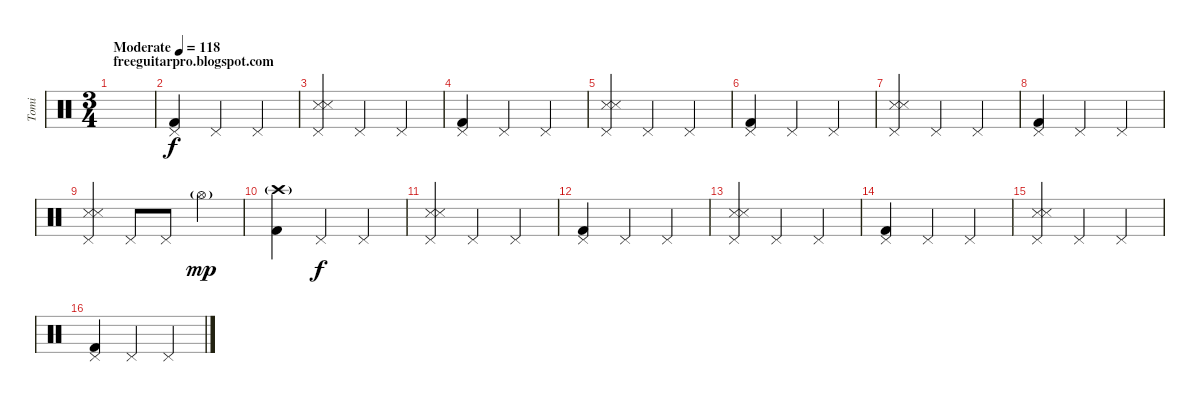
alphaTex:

\track ("Tomi" "Tomi") {instrument percussion}
\staff {score}
\articulation defaults
\ts (3 4)
\section ("" "freeguitarpro.blogspot.com")
\tempo (118 "Moderate")
\clef neutral
\ks c
|
("Pedal Hi-Hat (hit)" "Kick (hit) 2").4 "Pedal Hi-Hat (hit)".4 "Pedal Hi-Hat (hit)".4 |
("Snare (side stick) 3" "Pedal Hi-Hat (hit)" "Snare (side stick) 3").4 "Pedal Hi-Hat (hit)".4 "Pedal Hi-Hat (hit)".4 |
("Pedal Hi-Hat (hit)" "Kick (hit) 2").4 "Pedal Hi-Hat (hit)".4 "Pedal Hi-Hat (hit)".4 |
("Snare (side stick) 3" "Pedal Hi-Hat (hit)" "Snare (side stick) 3").4 "Pedal Hi-Hat (hit)".4 "Pedal Hi-Hat (hit)".4 |
("Pedal Hi-Hat (hit)" "Kick (hit) 2").4 "Pedal Hi-Hat (hit)".4 "Pedal Hi-Hat (hit)".4 |
("Snare (side stick) 3" "Pedal Hi-Hat (hit)" "Snare (side stick) 3").4 "Pedal Hi-Hat (hit)".4 "Pedal Hi-Hat (hit)".4 |
("Pedal Hi-Hat (hit)" "Kick (hit) 2").4 "Pedal Hi-Hat (hit)".4 "Pedal Hi-Hat (hit)".4 |
("Snare (side stick) 3" "Pedal Hi-Hat (hit)" "Snare (side stick) 3").4 "Pedal Hi-Hat (hit)".8 "Pedal Hi-Hat (hit)".8 "Hi-Hat (open)"{g}.4{dy mp} |
("Crash high (hit)"{g} "Kick (hit) 2").4 "Pedal Hi-Hat (hit)".4{dy f} "Pedal Hi-Hat (hit)".4 |
("Snare (side stick) 3" "Pedal Hi-Hat (hit)" "Snare (side stick) 3").4 "Pedal Hi-Hat (hit)".4 "Pedal Hi-Hat (hit)".4 |
("Pedal Hi-Hat (hit)" "Kick (hit) 2").4 "Pedal Hi-Hat (hit)".4 "Pedal Hi-Hat (hit)".4 |
("Snare (side stick) 3" "Pedal Hi-Hat (hit)" "Snare (side stick) 3").4 "Pedal Hi-Hat (hit)".4 "Pedal Hi-Hat (hit)".4 |
("Pedal Hi-Hat (hit)" "Kick (hit) 2").4 "Pedal Hi-Hat (hit)".4 "Pedal Hi-Hat (hit)".4 |
("Snare (side stick) 3" "Pedal Hi-Hat (hit)" "Snare (side stick) 3").4 "Pedal Hi-Hat (hit)".4 "Pedal Hi-Hat (hit)".4 |
("Pedal Hi-Hat (hit)" "Kick (hit) 2").4 "Pedal Hi-Hat (hit)".4 "Pedal Hi-Hat (hit)".4
